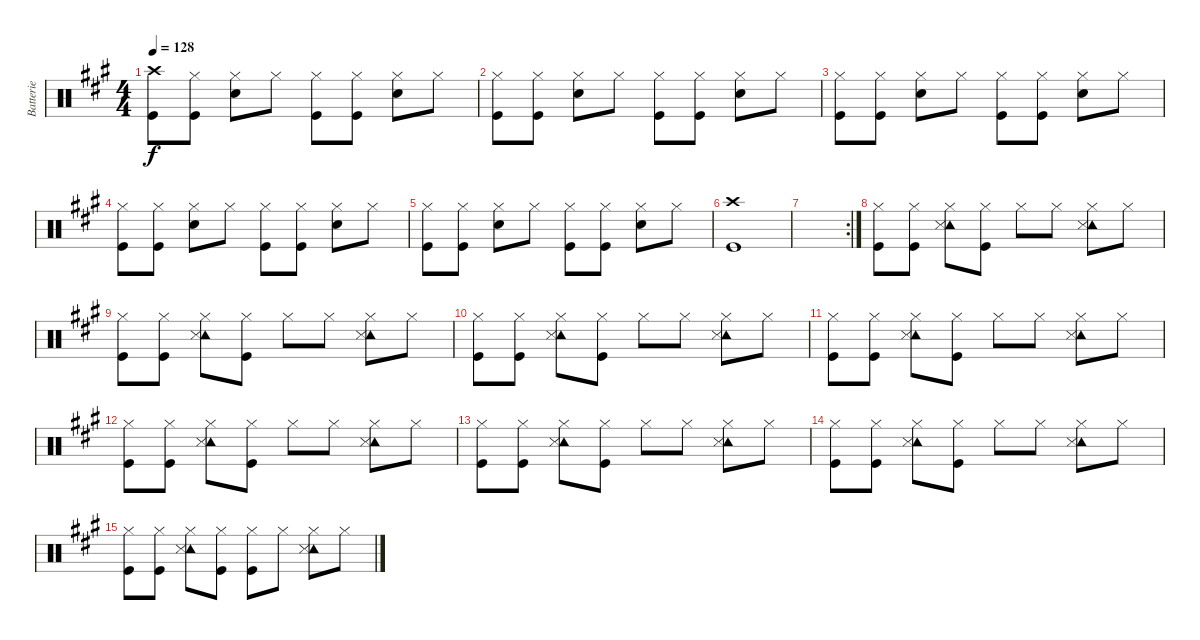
\track ("Batterie" "Batterie") {instrument percussion}
\staff {score}
\articulation defaults
\ts (4 4)
\tempo 128
\clef neutral
\ks a
("Crash high (hit)" "Kick (hit)").8{dy f} ("Hi-Hat (closed)" "Kick (hit)").8 ("Hi-Hat (closed)" "Snare (hit) 2").8 "Hi-Hat (closed)".8 ("Hi-Hat (closed)" "Kick (hit)").8 ("Hi-Hat (closed)" "Kick (hit)").8 ("Hi-Hat (closed)" "Snare (hit) 2").8 "Hi-Hat (closed)".8 |
("Hi-Hat (closed)" "Kick (hit)").8 ("Hi-Hat (closed)" "Kick (hit)").8 ("Hi-Hat (closed)" "Snare (hit) 2").8 "Hi-Hat (closed)".8 ("Hi-Hat (closed)" "Kick (hit)").8 ("Hi-Hat (closed)" "Kick (hit)").8 ("Hi-Hat (closed)" "Snare (hit) 2").8 "Hi-Hat (closed)".8 |
("Hi-Hat (closed)" "Kick (hit)").8 ("Hi-Hat (closed)" "Kick (hit)").8 ("Hi-Hat (closed)" "Snare (hit) 2").8 "Hi-Hat (closed)".8 ("Hi-Hat (closed)" "Kick (hit)").8 ("Hi-Hat (closed)" "Kick (hit)").8 ("Hi-Hat (closed)" "Snare (hit) 2").8 "Hi-Hat (closed)".8 |
("Hi-Hat (closed)" "Kick (hit)").8 ("Hi-Hat (closed)" "Kick (hit)").8 ("Hi-Hat (closed)" "Snare (hit) 2").8 "Hi-Hat (closed)".8 ("Hi-Hat (closed)" "Kick (hit)").8 ("Hi-Hat (closed)" "Kick (hit)").8 ("Hi-Hat (closed)" "Snare (hit) 2").8 "Hi-Hat (closed)".8 |
("Hi-Hat (closed)" "Kick (hit)").8 ("Hi-Hat (closed)" "Kick (hit)").8 ("Hi-Hat (closed)" "Snare (hit) 2").8 "Hi-Hat (closed)".8 ("Hi-Hat (closed)" "Kick (hit)").8 ("Hi-Hat (closed)" "Kick (hit)").8 ("Hi-Hat (closed)" "Snare (hit) 2").8 "Hi-Hat (closed)".8 |
("Crash high (hit)" "Kick (hit)").1 |
\rc 2
|
("Hi-Hat (closed)" "Kick (hit)").8 ("Hi-Hat (closed)" "Kick (hit)").8 ("Hi-Hat (closed)" "Tambourine (hit)" "Snare (side stick) 3").8 ("Hi-Hat (closed)" "Kick (hit)").8 "Hi-Hat (closed)".8 "Hi-Hat (closed)".8 ("Hi-Hat (closed)" "Tambourine (hit)" "Snare (side stick) 3").8 "Hi-Hat (closed)".8 |
("Hi-Hat (closed)" "Kick (hit)").8 ("Hi-Hat (closed)" "Kick (hit)").8 ("Hi-Hat (closed)" "Tambourine (hit)" "Snare (side stick) 3").8 ("Hi-Hat (closed)" "Kick (hit)").8 "Hi-Hat (closed)".8 "Hi-Hat (closed)".8 ("Hi-Hat (closed)" "Tambourine (hit)" "Snare (side stick) 3").8 "Hi-Hat (closed)".8 |
("Hi-Hat (closed)" "Kick (hit)").8 ("Hi-Hat (closed)" "Kick (hit)").8 ("Hi-Hat (closed)" "Tambourine (hit)" "Snare (side stick) 3").8 ("Hi-Hat (closed)" "Kick (hit)").8 "Hi-Hat (closed)".8 "Hi-Hat (closed)".8 ("Hi-Hat (closed)" "Tambourine (hit)" "Snare (side stick) 3").8 "Hi-Hat (closed)".8 |
("Hi-Hat (closed)" "Kick (hit)").8 ("Hi-Hat (closed)" "Kick (hit)").8 ("Hi-Hat (closed)" "Tambourine (hit)" "Snare (side stick) 3").8 ("Hi-Hat (closed)" "Kick (hit)").8 "Hi-Hat (closed)".8 "Hi-Hat (closed)".8 ("Hi-Hat (closed)" "Tambourine (hit)" "Snare (side stick) 3").8 "Hi-Hat (closed)".8 |
("Hi-Hat (closed)" "Kick (hit)").8 ("Hi-Hat (closed)" "Kick (hit)").8 ("Hi-Hat (closed)" "Tambourine (hit)" "Snare (side stick) 3").8 ("Hi-Hat (closed)" "Kick (hit)").8 "Hi-Hat (closed)".8 "Hi-Hat (closed)".8 ("Hi-Hat (closed)" "Tambourine (hit)" "Snare (side stick) 3").8 "Hi-Hat (closed)".8 |
("Hi-Hat (closed)" "Kick (hit)").8 ("Hi-Hat (closed)" "Kick (hit)").8 ("Hi-Hat (closed)" "Tambourine (hit)" "Snare (side stick) 3").8 ("Hi-Hat (closed)" "Kick (hit)").8 "Hi-Hat (closed)".8 "Hi-Hat (closed)".8 ("Hi-Hat (closed)" "Tambourine (hit)" "Snare (side stick) 3").8 "Hi-Hat (closed)".8 |
("Hi-Hat (closed)" "Kick (hit)").8 ("Hi-Hat (closed)" "Kick (hit)").8 ("Hi-Hat (closed)" "Tambourine (hit)" "Snare (side stick) 3").8 ("Hi-Hat (closed)" "Kick (hit)").8 "Hi-Hat (closed)".8 "Hi-Hat (closed)".8 ("Hi-Hat (closed)" "Tambourine (hit)" "Snare (side stick) 3").8 "Hi-Hat (closed)".8 |
("Hi-Hat (closed)" "Kick (hit)").8 ("Hi-Hat (closed)" "Kick (hit)").8 ("Hi-Hat (closed)" "Tambourine (hit)" "Snare (side stick) 3").8 ("Hi-Hat (closed)" "Kick (hit)").8 ("Hi-Hat (closed)" "Kick (hit)").8 "Hi-Hat (closed)".8 ("Hi-Hat (closed)" "Tambourine (hit)" "Snare (side stick) 3").8 "Hi-Hat (closed)".8
